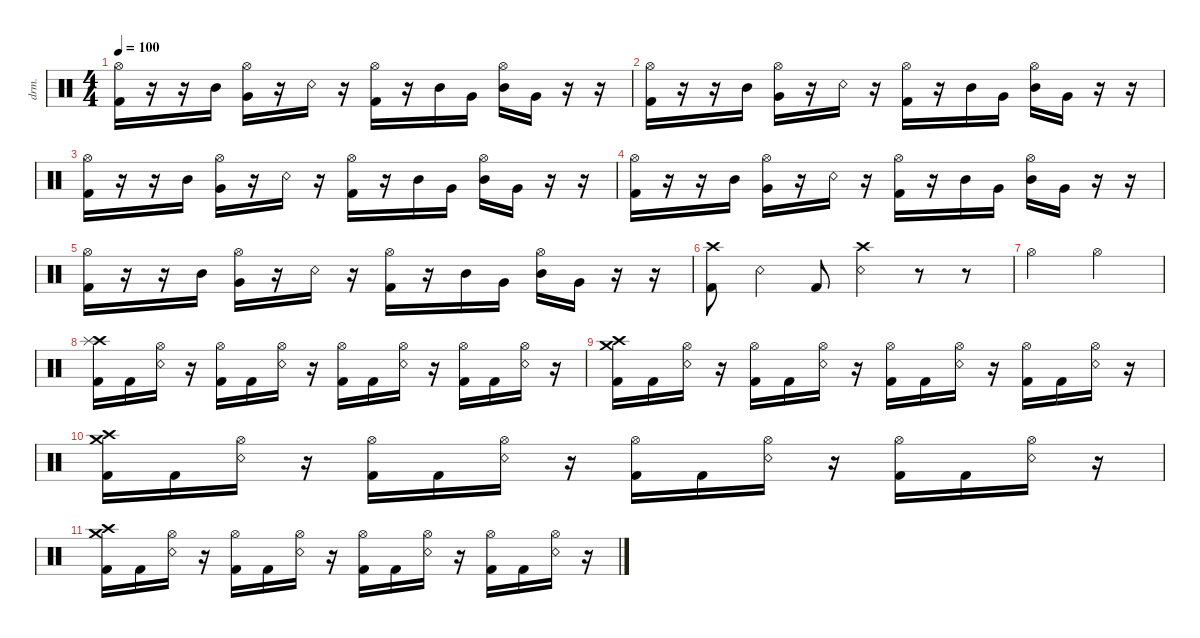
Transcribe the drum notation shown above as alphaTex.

\defaultSystemsLayout 4
\hideDynamics
\bracketExtendMode nobrackets
\otherSystemsTrackNameOrientation horizontal
\track ("Drumkit" "drm.") {instrument percussion}
\staff {score}
\articulation defaults
\ts (4 4)
\tempo 100
\clef neutral
\ks c
("Hi-Hat (open)" "Kick (hit) 2").16{dy mf beam Down} r.16{beam Down} r.16{beam Down} "Mid Tom (hit)".16{beam Down} ("Very Low Tom (hit)" "Hi-Hat (open)").16{beam Down} r.16{beam Down} "Snare (rim shot)".16{beam Down} r.16{beam Down} ("Hi-Hat (open)" "Kick (hit) 2").16{beam Down} r.16{beam Down} "Mid Tom (hit)".16{beam Down} "Very Low Tom (hit)".16{beam Down} ("Mid Tom (hit)" "Hi-Hat (open)").16{beam Down} "Very Low Tom (hit)".16{beam Down} r.16{beam Down} r.16{beam Down} |
("Hi-Hat (open)" "Kick (hit) 2").16{beam Down} r.16{beam Down} r.16{beam Down} "Mid Tom (hit)".16{beam Down} ("Very Low Tom (hit)" "Hi-Hat (open)").16{beam Down} r.16{beam Down} "Snare (rim shot)".16{beam Down} r.16{beam Down} ("Hi-Hat (open)" "Kick (hit) 2").16{beam Down} r.16{beam Down} "Mid Tom (hit)".16{beam Down} "Very Low Tom (hit)".16{beam Down} ("Mid Tom (hit)" "Hi-Hat (open)").16{beam Down} "Very Low Tom (hit)".16{beam Down} r.16{beam Down} r.16{beam Down} |
("Hi-Hat (open)" "Kick (hit) 2").16{beam Down} r.16{beam Down} r.16{beam Down} "Mid Tom (hit)".16{beam Down} ("Very Low Tom (hit)" "Hi-Hat (open)").16{beam Down} r.16{beam Down} "Snare (rim shot)".16{beam Down} r.16{beam Down} ("Hi-Hat (open)" "Kick (hit) 2").16{beam Down} r.16{beam Down} "Mid Tom (hit)".16{beam Down} "Very Low Tom (hit)".16{beam Down} ("Mid Tom (hit)" "Hi-Hat (open)").16{beam Down} "Very Low Tom (hit)".16{beam Down} r.16{beam Down} r.16{beam Down} |
("Hi-Hat (open)" "Kick (hit) 2").16{beam Down} r.16{beam Down} r.16{beam Down} "Mid Tom (hit)".16{beam Down} ("Very Low Tom (hit)" "Hi-Hat (open)").16{beam Down} r.16{beam Down} "Snare (rim shot)".16{beam Down} r.16{beam Down} ("Hi-Hat (open)" "Kick (hit) 2").16{beam Down} r.16{beam Down} "Mid Tom (hit)".16{beam Down} "Very Low Tom (hit)".16{beam Down} ("Mid Tom (hit)" "Hi-Hat (open)").16{beam Down} "Very Low Tom (hit)".16{beam Down} r.16{beam Down} r.16{beam Down} |
("Hi-Hat (open)" "Kick (hit) 2").16{beam Down} r.16{beam Down} r.16{beam Down} "Mid Tom (hit)".16{beam Down} ("Very Low Tom (hit)" "Hi-Hat (open)").16{beam Down} r.16{beam Down} "Snare (rim shot)".16{beam Down} r.16{beam Down} ("Hi-Hat (open)" "Kick (hit) 2").16{beam Down} r.16{beam Down} "Mid Tom (hit)".16{beam Down} "Very Low Tom (hit)".16{beam Down} ("Mid Tom (hit)" "Hi-Hat (open)").16{beam Down} "Very Low Tom (hit)".16{beam Down} r.16{beam Down} r.16{beam Down} |
("Kick (hit) 2" "Crash high (hit)").8{beam Down} "Snare (rim shot)".4{beam Down} "Kick (hit) 2".8{beam Up} ("Snare (rim shot)" "Crash high (hit)").4{beam Down} r.8{beam Down} r.8{beam Down} |
"Hi-Hat (open)".2{beam Down} "Hi-Hat (open)".2{beam Down} |
("Kick (hit) 2" "Crash high (hit)" "Splash (hit)").16{beam Down} "Kick (hit) 2".16{beam Down} ("Snare (rim shot)" "Hi-Hat (open)").16{beam Down} r.16{beam Down} ("Kick (hit) 2" "Hi-Hat (open)").16{beam Down} "Kick (hit) 2".16{beam Down} ("Snare (rim shot)" "Hi-Hat (open)").16{beam Down} r.16{beam Down} ("Kick (hit) 2" "Hi-Hat (open)").16{beam Down} "Kick (hit) 2".16{beam Down} ("Snare (rim shot)" "Hi-Hat (open)").16{beam Down} r.16{beam Down} ("Kick (hit) 2" "Hi-Hat (open)").16{beam Down} "Kick (hit) 2".16{beam Down} ("Snare (rim shot)" "Hi-Hat (open)").16{beam Down} r.16{beam Down} |
("Kick (hit) 2" "Crash medium (hit)" "Crash high (hit)").16{beam Down} "Kick (hit) 2".16{beam Down} ("Snare (rim shot)" "Hi-Hat (open)").16{beam Down} r.16{beam Down} ("Kick (hit) 2" "Hi-Hat (open)").16{beam Down} "Kick (hit) 2".16{beam Down} ("Snare (rim shot)" "Hi-Hat (open)").16{beam Down} r.16{beam Down} ("Kick (hit) 2" "Hi-Hat (open)").16{beam Down} "Kick (hit) 2".16{beam Down} ("Snare (rim shot)" "Hi-Hat (open)").16{beam Down} r.16{beam Down} ("Kick (hit) 2" "Hi-Hat (open)").16{beam Down} "Kick (hit) 2".16{beam Down} ("Snare (rim shot)" "Hi-Hat (open)").16{beam Down} r.16{beam Down} |
("Kick (hit) 2" "Crash medium (hit)" "Crash high (hit)").16{beam Down} "Kick (hit) 2".16{beam Down} ("Snare (rim shot)" "Hi-Hat (open)").16{beam Down} r.16{beam Down} ("Kick (hit) 2" "Hi-Hat (open)").16{beam Down} "Kick (hit) 2".16{beam Down} ("Snare (rim shot)" "Hi-Hat (open)").16{beam Down} r.16{beam Down} ("Kick (hit) 2" "Hi-Hat (open)").16{beam Down} "Kick (hit) 2".16{beam Down} ("Snare (rim shot)" "Hi-Hat (open)").16{beam Down} r.16{beam Down} ("Kick (hit) 2" "Hi-Hat (open)").16{beam Down} "Kick (hit) 2".16{beam Down} ("Snare (rim shot)" "Hi-Hat (open)").16{beam Down} r.16{beam Down} |
("Kick (hit) 2" "Crash medium (hit)" "Crash high (hit)").16{beam Down} "Kick (hit) 2".16{beam Down} ("Snare (rim shot)" "Hi-Hat (open)").16{beam Down} r.16{beam Down} ("Kick (hit) 2" "Hi-Hat (open)").16{beam Down} "Kick (hit) 2".16{beam Down} ("Snare (rim shot)" "Hi-Hat (open)").16{beam Down} r.16{beam Down} ("Kick (hit) 2" "Hi-Hat (open)").16{beam Down} "Kick (hit) 2".16{beam Down} ("Snare (rim shot)" "Hi-Hat (open)").16{beam Down} r.16{beam Down} ("Kick (hit) 2" "Hi-Hat (open)").16{beam Down} "Kick (hit) 2".16{beam Down} ("Snare (rim shot)" "Hi-Hat (open)").16{beam Down} r.16{beam Down}
